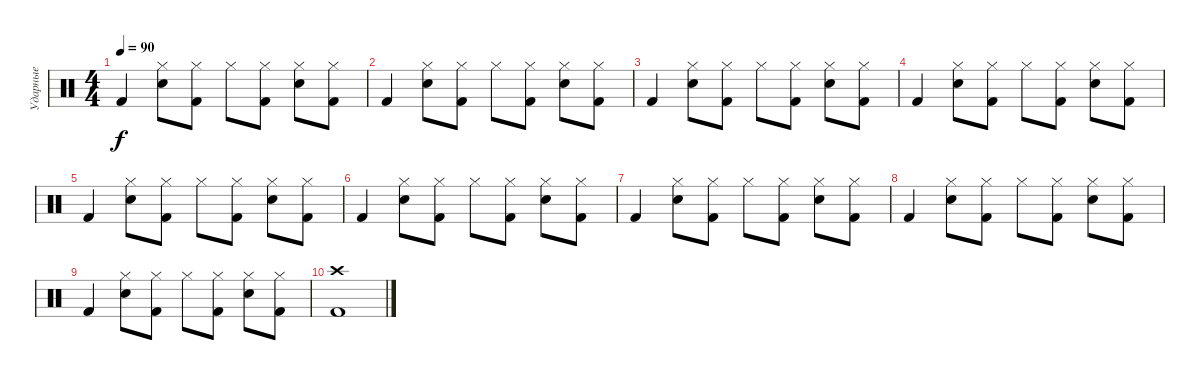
\track ("Ударные" "Ударные") {instrument percussion}
\staff {score}
\articulation defaults
\ts (4 4)
\tempo 90
\clef neutral
\ks c "Kick (hit) 2".4{dy f}
("Electric Snare (hit)" "Hi-Hat (closed)").8 ("Kick (hit) 2" "Hi-Hat (closed)").8 "Hi-Hat (closed)".8 ("Kick (hit) 2" "Hi-Hat (closed)").8 ("Electric Snare (hit)" "Hi-Hat (closed)").8 ("Kick (hit) 2" "Hi-Hat (closed)").8 |
"Kick (hit) 2".4 ("Electric Snare (hit)" "Hi-Hat (closed)").8 ("Kick (hit) 2" "Hi-Hat (closed)").8 "Hi-Hat (closed)".8 ("Kick (hit) 2" "Hi-Hat (closed)").8 ("Electric Snare (hit)" "Hi-Hat (closed)").8 ("Kick (hit) 2" "Hi-Hat (closed)").8 |
"Kick (hit) 2".4 ("Electric Snare (hit)" "Hi-Hat (closed)").8 ("Kick (hit) 2" "Hi-Hat (closed)").8 "Hi-Hat (closed)".8 ("Kick (hit) 2" "Hi-Hat (closed)").8 ("Electric Snare (hit)" "Hi-Hat (closed)").8 ("Kick (hit) 2" "Hi-Hat (closed)").8 |
"Kick (hit) 2".4 ("Electric Snare (hit)" "Hi-Hat (closed)").8 ("Kick (hit) 2" "Hi-Hat (closed)").8 "Hi-Hat (closed)".8 ("Kick (hit) 2" "Hi-Hat (closed)").8 ("Electric Snare (hit)" "Hi-Hat (closed)").8 ("Kick (hit) 2" "Hi-Hat (closed)").8 |
"Kick (hit) 2".4 ("Electric Snare (hit)" "Hi-Hat (closed)").8 ("Kick (hit) 2" "Hi-Hat (closed)").8 "Hi-Hat (closed)".8 ("Kick (hit) 2" "Hi-Hat (closed)").8 ("Electric Snare (hit)" "Hi-Hat (closed)").8 ("Kick (hit) 2" "Hi-Hat (closed)").8 |
"Kick (hit) 2".4 ("Electric Snare (hit)" "Hi-Hat (closed)").8 ("Kick (hit) 2" "Hi-Hat (closed)").8 "Hi-Hat (closed)".8 ("Kick (hit) 2" "Hi-Hat (closed)").8 ("Electric Snare (hit)" "Hi-Hat (closed)").8 ("Kick (hit) 2" "Hi-Hat (closed)").8 |
"Kick (hit) 2".4 ("Electric Snare (hit)" "Hi-Hat (closed)").8 ("Kick (hit) 2" "Hi-Hat (closed)").8 "Hi-Hat (closed)".8 ("Kick (hit) 2" "Hi-Hat (closed)").8 ("Electric Snare (hit)" "Hi-Hat (closed)").8 ("Kick (hit) 2" "Hi-Hat (closed)").8 |
"Kick (hit) 2".4 ("Electric Snare (hit)" "Hi-Hat (closed)").8 ("Kick (hit) 2" "Hi-Hat (closed)").8 "Hi-Hat (closed)".8 ("Kick (hit) 2" "Hi-Hat (closed)").8 ("Electric Snare (hit)" "Hi-Hat (closed)").8 ("Kick (hit) 2" "Hi-Hat (closed)").8 |
"Kick (hit) 2".4 ("Electric Snare (hit)" "Hi-Hat (closed)").8 ("Kick (hit) 2" "Hi-Hat (closed)").8 "Hi-Hat (closed)".8 ("Kick (hit) 2" "Hi-Hat (closed)").8 ("Electric Snare (hit)" "Hi-Hat (closed)").8 ("Kick (hit) 2" "Hi-Hat (closed)").8 |
("Kick (hit) 2" "Crash high (hit)").1
